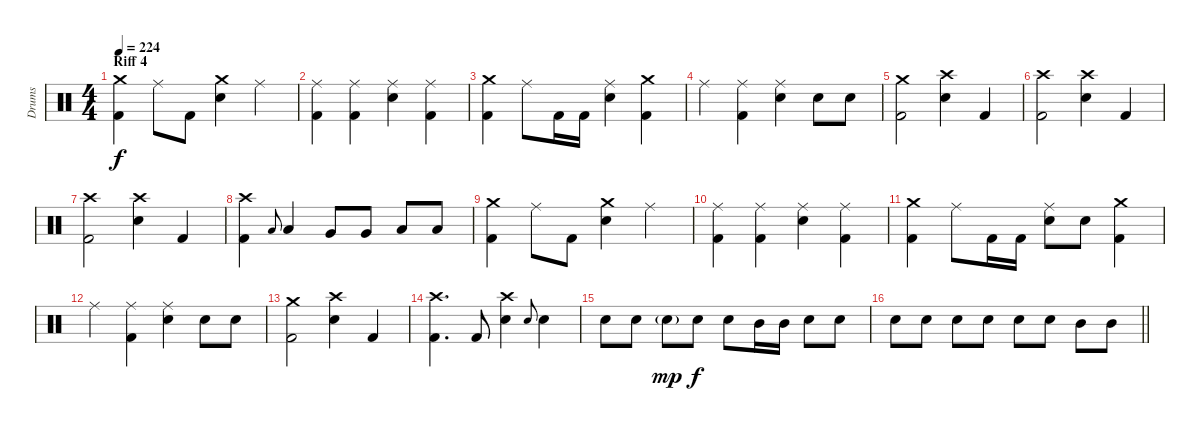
\track ("Drums" "Drums") {instrument percussion}
\staff {score}
\articulation defaults
\ts (4 4)
\section ("" "Riff 4")
\tempo 224
\clef neutral
\ks c
("Crash medium (hit)" "Kick (hit) 2").4{dy f} "Ride (middle)".8 "Kick (hit) 2".8 ("Crash medium (hit)" "Electric Snare (hit)").4 "Ride (middle)".4 |
("Ride (middle)" "Kick (hit) 2").4 ("Ride (middle)" "Kick (hit) 2").4 ("Ride (middle)" "Electric Snare (hit)").4 ("Ride (middle)" "Kick (hit) 2").4 |
("Crash medium (hit)" "Kick (hit) 2").4 "Ride (middle)".8 "Kick (hit) 2".16 "Kick (hit) 2".16 ("Electric Snare (hit)" "Ride (middle)").4 ("Crash medium (hit)" "Kick (hit) 2").4 |
"Ride (middle)".4 ("Kick (hit) 2" "Ride (middle)").4 ("Electric Snare (hit)" "Ride (middle)").4 "Electric Snare (hit)".8 "Electric Snare (hit)".8 |
("Crash medium (hit)" "Kick (hit) 2").2 ("Electric Snare (hit)" "Crash high (hit)").4 "Kick (hit) 2".4 |
("Crash high (hit)" "Kick (hit) 2").2 ("Electric Snare (hit)" "Crash high (hit)").4 "Kick (hit) 2".4 |
("Crash high (hit)" "Kick (hit) 2").2 ("Electric Snare (hit)" "Crash high (hit)").4 "Kick (hit) 2".4 |
("Crash high (hit)" "Kick (hit) 2").4 "Low Tom (hit)".8{gr onbeat} "Low Tom (hit)".4 "Very Low Tom (hit)".8 "Very Low Tom (hit)".8 "Low Floor Tom (hit)".8 "Low Floor Tom (hit)".8 |
("Crash medium (hit)" "Kick (hit) 2").4 "Ride (middle)".8 "Kick (hit) 2".8 ("Crash medium (hit)" "Electric Snare (hit)").4 "Ride (middle)".4 |
("Ride (middle)" "Kick (hit) 2").4 ("Ride (middle)" "Kick (hit) 2").4 ("Ride (middle)" "Electric Snare (hit)").4 ("Ride (middle)" "Kick (hit) 2").4 |
("Crash medium (hit)" "Kick (hit) 2").4 "Ride (middle)".8 "Kick (hit) 2".16 "Kick (hit) 2".16 ("Electric Snare (hit)" "Ride (middle)").8 "Electric Snare (hit)".8 ("Crash medium (hit)" "Kick (hit) 2").4 |
"Ride (middle)".4 ("Kick (hit) 2" "Ride (middle)").4 ("Electric Snare (hit)" "Ride (middle)").4 "Electric Snare (hit)".8 "Electric Snare (hit)".8 |
("Crash medium (hit)" "Kick (hit) 2").2 ("Electric Snare (hit)" "Crash high (hit)").4 "Kick (hit) 2".4 |
("Crash high (hit)" "Kick (hit) 2").4{d} "Kick (hit) 2".8 ("Electric Snare (hit)" "Crash high (hit)").4 "Electric Snare (hit)".8{gr onbeat} "Electric Snare (hit)".4 |
"Electric Snare (hit)".8 "Electric Snare (hit)".8 "Electric Snare (hit)"{g}.8{dy mp} "Electric Snare (hit)".8{dy f} "Electric Snare (hit)".8 "Mid Tom (hit)".16 "Mid Tom (hit)".16 "Electric Snare (hit)".8 "Electric Snare (hit)".8 |
\barLineRight lightlight "Electric Snare (hit)".8 "Electric Snare (hit)".8 "Electric Snare (hit)".8 "Electric Snare (hit)".8 "Electric Snare (hit)".8 "Electric Snare (hit)".8 "Mid Tom (hit)".8 "Mid Tom (hit)".8
